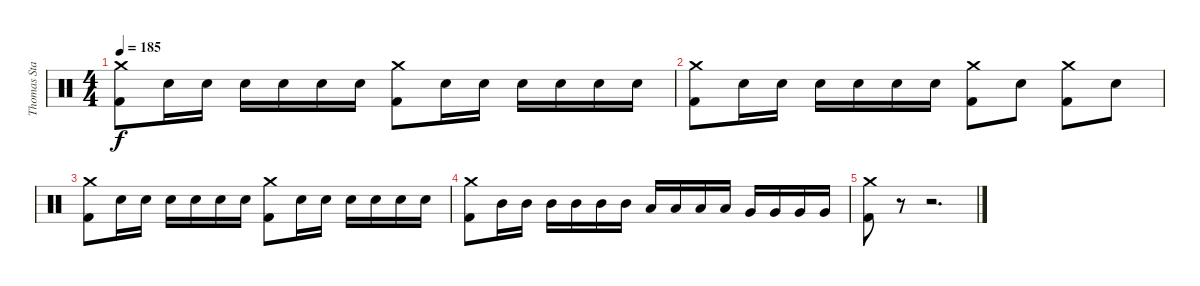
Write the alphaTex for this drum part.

\track ("Thomas Stauch" "Thomas Sta") {instrument percussion}
\staff {score}
\articulation defaults
\ts (4 4)
\tempo 185
\clef neutral
\ks c
("Crash medium (hit)" "Kick (hit) 2").8{dy f} "Electric Snare (hit)".16 "Electric Snare (hit)".16 "Electric Snare (hit)".16 "Electric Snare (hit)".16 "Electric Snare (hit)".16 "Electric Snare (hit)".16 ("Crash medium (hit)" "Kick (hit) 2").8 "Electric Snare (hit)".16 "Electric Snare (hit)".16 "Electric Snare (hit)".16 "Electric Snare (hit)".16 "Electric Snare (hit)".16 "Electric Snare (hit)".16 |
("Crash medium (hit)" "Kick (hit) 2").8 "Electric Snare (hit)".16 "Electric Snare (hit)".16 "Electric Snare (hit)".16 "Electric Snare (hit)".16 "Electric Snare (hit)".16 "Electric Snare (hit)".16 ("Crash medium (hit)" "Kick (hit) 2").8 "Electric Snare (hit)".8 ("Crash medium (hit)" "Kick (hit) 2").8 "Electric Snare (hit)".8 |
("Crash medium (hit)" "Kick (hit) 2").8 "Electric Snare (hit)".16 "Electric Snare (hit)".16 "Electric Snare (hit)".16 "Electric Snare (hit)".16 "Electric Snare (hit)".16 "Electric Snare (hit)".16 ("Crash medium (hit)" "Kick (hit) 2").8 "Electric Snare (hit)".16 "Electric Snare (hit)".16 "Electric Snare (hit)".16 "Electric Snare (hit)".16 "Electric Snare (hit)".16 "Electric Snare (hit)".16 |
("Crash medium (hit)" "Kick (hit) 2").8 "Mid Tom (hit)".16 "Mid Tom (hit)".16 "Mid Tom (hit)".16 "Mid Tom (hit)".16 "Mid Tom (hit)".16 "Mid Tom (hit)".16 "Low Tom (hit)".16 "Low Tom (hit)".16 "Low Tom (hit)".16 "Low Tom (hit)".16 "Very Low Tom (hit)".16 "Very Low Tom (hit)".16 "Very Low Tom (hit)".16 "Very Low Tom (hit)".16 |
("Crash medium (hit)" "Kick (hit) 2").8 r.8 r.2{d}
